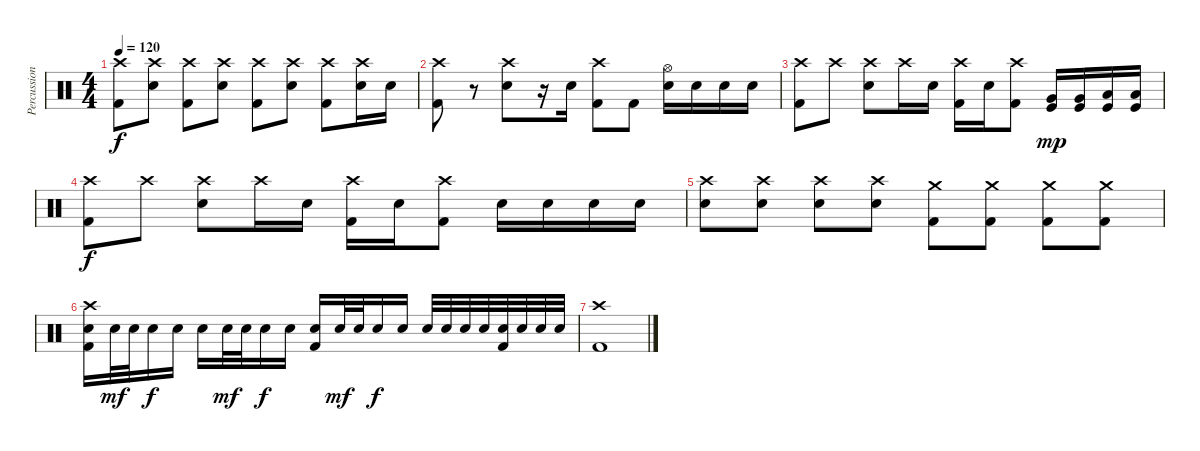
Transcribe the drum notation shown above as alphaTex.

\track ("Percussions" "Percussion") {instrument percussion}
\staff {score}
\articulation defaults
\ts (4 4)
\tempo 120
\clef neutral
\ks c
("Crash high (hit)" "Kick (hit) 2").8{dy f} ("Crash high (hit)" "Snare (hit) 2").8 ("Crash high (hit)" "Kick (hit) 2").8 ("Crash high (hit)" "Snare (hit) 2").8 ("Crash high (hit)" "Kick (hit) 2").8 ("Crash high (hit)" "Snare (hit) 2").8 ("Crash high (hit)" "Kick (hit) 2").8 ("Crash high (hit)" "Snare (hit) 2").16 "Snare (hit) 2".16 |
("Crash high (hit)" "Kick (hit) 2").8 r.8 ("Crash high (hit)" "Snare (hit) 2").8 r.16 "Snare (hit) 2".16 ("Crash high (hit)" "Kick (hit) 2").8 "Kick (hit) 2".8 ("Hi-Hat (open)" "Snare (hit) 2").16 "Snare (hit) 2".16 "Snare (hit) 2".16 "Snare (hit) 2".16 |
("Crash high (hit)" "Kick (hit) 2").8 "Crash high (hit)".8 ("Crash high (hit)" "Snare (hit) 2").8 "Crash high (hit)".16 "Snare (hit) 2".16 ("Crash high (hit)" "Kick (hit) 2").16 "Snare (hit) 2".16 ("Crash high (hit)" "Kick (hit) 2").8 ("Very Low Tom (hit)" "Kick (hit)").16{dy mp} ("Very Low Tom (hit)" "Kick (hit)").16 ("Low Floor Tom (hit)" "Kick (hit)").16 ("Low Floor Tom (hit)" "Kick (hit)").16 |
("Crash high (hit)" "Kick (hit) 2").8{dy f} "Crash high (hit)".8 ("Crash high (hit)" "Snare (hit) 2").8 "Crash high (hit)".16 "Snare (hit) 2".16 ("Crash high (hit)" "Kick (hit) 2").16 "Snare (hit) 2".16 ("Crash high (hit)" "Kick (hit) 2").8 "Snare (hit) 2".16 "Snare (hit) 2".16 "Snare (hit) 2".16 "Snare (hit) 2".16 |
("Crash high (hit)" "Snare (hit) 2").8 ("Crash high (hit)" "Snare (hit) 2").8 ("Crash high (hit)" "Snare (hit) 2").8 ("Crash high (hit)" "Snare (hit) 2").8 ("Crash medium (hit)" "Kick (hit) 2").8 ("Crash medium (hit)" "Kick (hit) 2").8 ("Crash medium (hit)" "Kick (hit) 2").8 ("Crash medium (hit)" "Kick (hit) 2").8 |
("Crash high (hit)" "Snare (hit) 2" "Kick (hit) 2").16 "Snare (hit) 2".32{dy mf} "Snare (hit) 2".32 "Snare (hit) 2".16{dy f} "Snare (hit) 2".16 "Snare (hit) 2".16 "Snare (hit) 2".32{dy mf} "Snare (hit) 2".32 "Snare (hit) 2".16{dy f} "Snare (hit) 2".16 ("Snare (hit) 2" "Kick (hit) 2").16 "Snare (hit) 2".32{dy mf} "Snare (hit) 2".32 "Snare (hit) 2".16{dy f} "Snare (hit) 2".16 "Snare (hit) 2".32 "Snare (hit) 2".32 "Snare (hit) 2".32 "Snare (hit) 2".32 ("Snare (hit) 2" "Kick (hit) 2").32 "Snare (hit) 2".32 "Snare (hit) 2".32 "Snare (hit) 2".32 |
("Crash high (hit)" "Kick (hit) 2").1
